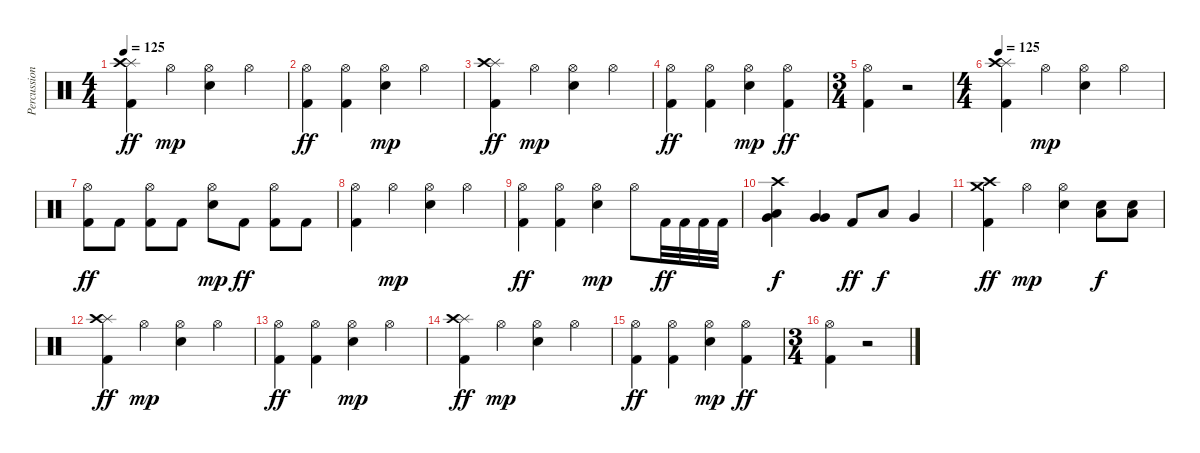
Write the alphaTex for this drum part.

\track ("Percussion" "Percussion") {instrument percussion}
\staff {score}
\articulation defaults
\ts (4 4)
\tempo 125
\clef neutral
\ks c
("Splash (hit)" "Crash high (hit)" "Kick (hit) 2").4{dy ff} "Hi-Hat (open)".4{dy mp} ("Hi-Hat (open)" "Snare (hit) 2").4 "Hi-Hat (open)".4 |
("Hi-Hat (open)" "Kick (hit) 2").4{dy ff} ("Hi-Hat (open)" "Kick (hit) 2").4 ("Hi-Hat (open)" "Snare (hit) 2").4{dy mp} "Hi-Hat (open)".4 |
("Splash (hit)" "Crash high (hit)" "Kick (hit) 2").4{dy ff} "Hi-Hat (open)".4{dy mp} ("Hi-Hat (open)" "Snare (hit) 2").4 "Hi-Hat (open)".4 |
("Hi-Hat (open)" "Kick (hit) 2").4{dy ff} ("Hi-Hat (open)" "Kick (hit) 2").4 ("Hi-Hat (open)" "Snare (hit) 2").4{dy mp} ("Hi-Hat (open)" "Kick (hit) 2").4{dy ff} |
\ts (3 4)
("Hi-Hat (open)" "Kick (hit) 2").4 r.2 |
\ts (4 4)
\tempo 125
("Splash (hit)" "Crash high (hit)" "Kick (hit) 2").4 "Hi-Hat (open)".4{dy mp} ("Hi-Hat (open)" "Snare (hit) 2").4 "Hi-Hat (open)".4 |
("Hi-Hat (open)" "Kick (hit) 2").8{dy ff} "Kick (hit) 2".8 ("Hi-Hat (open)" "Kick (hit) 2").8 "Kick (hit) 2".8 ("Hi-Hat (open)" "Snare (hit) 2").8{dy mp} "Kick (hit) 2".8{dy ff} ("Hi-Hat (open)" "Kick (hit) 2").8 "Kick (hit) 2".8 |
("Hi-Hat (open)" "Kick (hit) 2").4 "Hi-Hat (open)".4{dy mp} ("Hi-Hat (open)" "Snare (hit) 2").4 "Hi-Hat (open)".4 |
("Hi-Hat (open)" "Kick (hit) 2").4{dy ff} ("Hi-Hat (open)" "Kick (hit) 2").4 ("Hi-Hat (open)" "Snare (hit) 2").4{dy mp} "Hi-Hat (open)".8 "Kick (hit) 2".32{dy ff} "Kick (hit) 2".32 "Kick (hit) 2".32 "Kick (hit) 2".32 |
("Crash high (hit)" "Very Low Tom (hit)" "Low Tom (hit)").4{dy f} ("Very Low Tom (hit)" "Very Low Tom (hit)").4 "Kick (hit) 2".8{dy ff} "Low Tom (hit)".8{dy f} "Very Low Tom (hit)".4 |
("Crash medium (hit)" "Crash high (hit)" "Kick (hit) 2").4{dy ff} "Hi-Hat (open)".4{dy mp} ("Hi-Hat (open)" "Snare (hit) 2").4 ("Low Floor Tom (hit)" "Snare (hit) 2").8{dy f} ("Low Floor Tom (hit)" "Snare (hit) 2").8 |
("Splash (hit)" "Crash high (hit)" "Kick (hit) 2").4{dy ff} "Hi-Hat (open)".4{dy mp} ("Hi-Hat (open)" "Snare (hit) 2").4 "Hi-Hat (open)".4 |
("Hi-Hat (open)" "Kick (hit) 2").4{dy ff} ("Hi-Hat (open)" "Kick (hit) 2").4 ("Hi-Hat (open)" "Snare (hit) 2").4{dy mp} "Hi-Hat (open)".4 |
("Splash (hit)" "Crash high (hit)" "Kick (hit) 2").4{dy ff} "Hi-Hat (open)".4{dy mp} ("Hi-Hat (open)" "Snare (hit) 2").4 "Hi-Hat (open)".4 |
("Hi-Hat (open)" "Kick (hit) 2").4{dy ff} ("Hi-Hat (open)" "Kick (hit) 2").4 ("Hi-Hat (open)" "Snare (hit) 2").4{dy mp} ("Hi-Hat (open)" "Kick (hit) 2").4{dy ff} |
\ts (3 4)
("Hi-Hat (open)" "Kick (hit) 2").4 r.2
